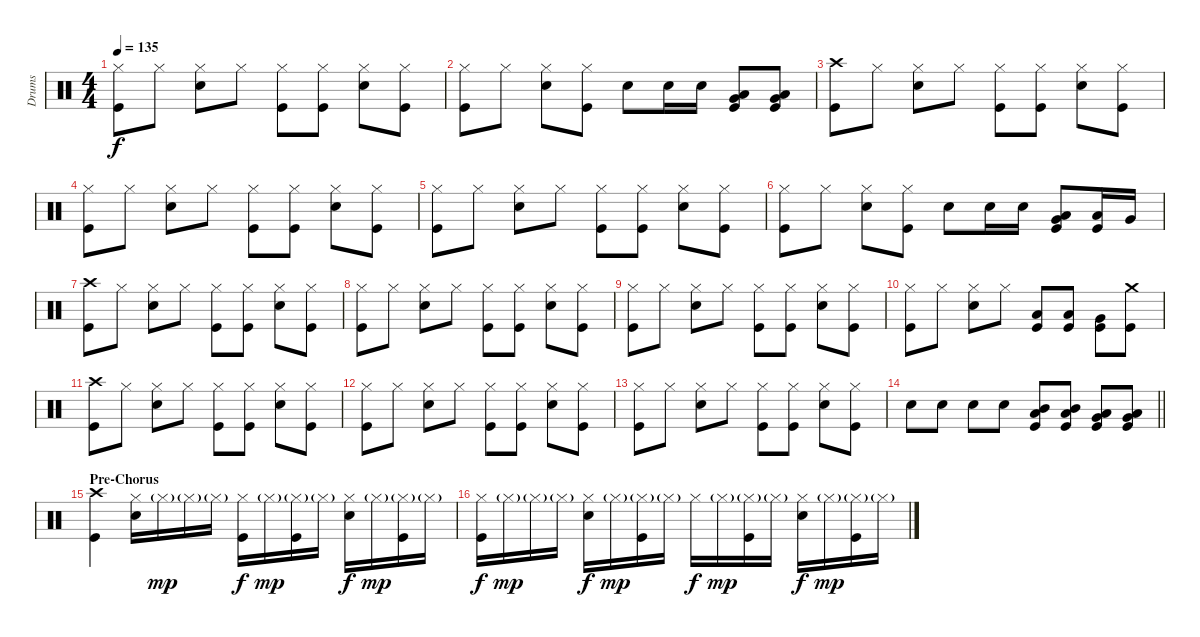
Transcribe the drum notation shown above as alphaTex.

\track ("Drums" "Drums") {instrument percussion}
\staff {score}
\articulation defaults
\ts (4 4)
\tempo 135
\clef neutral
\ks c
("Hi-Hat (closed)" "Kick (hit)").8{dy f} "Hi-Hat (closed)".8 ("Hi-Hat (closed)" "Snare (hit) 2").8 "Hi-Hat (closed)".8 ("Hi-Hat (closed)" "Kick (hit)").8 ("Hi-Hat (closed)" "Kick (hit)").8 ("Hi-Hat (closed)" "Snare (hit) 2").8 ("Hi-Hat (closed)" "Kick (hit)").8 |
("Hi-Hat (closed)" "Kick (hit)").8 "Hi-Hat (closed)".8 ("Hi-Hat (closed)" "Snare (hit) 2").8 ("Hi-Hat (closed)" "Kick (hit)").8 "Snare (hit) 2".8 "Snare (hit) 2".16 "Snare (hit) 2".16 ("Low Tom (hit)" "Very Low Tom (hit)" "Kick (hit)").8 ("Low Tom (hit)" "Very Low Tom (hit)" "Kick (hit)").8 |
("Crash high (hit)" "Kick (hit)").8 "Hi-Hat (closed)".8 ("Hi-Hat (closed)" "Snare (hit) 2").8 "Hi-Hat (closed)".8 ("Hi-Hat (closed)" "Kick (hit)").8 ("Hi-Hat (closed)" "Kick (hit)").8 ("Hi-Hat (closed)" "Snare (hit) 2").8 ("Hi-Hat (closed)" "Kick (hit)").8 |
("Hi-Hat (closed)" "Kick (hit)").8 "Hi-Hat (closed)".8 ("Hi-Hat (closed)" "Snare (hit) 2").8 "Hi-Hat (closed)".8 ("Hi-Hat (closed)" "Kick (hit)").8 ("Hi-Hat (closed)" "Kick (hit)").8 ("Hi-Hat (closed)" "Snare (hit) 2").8 ("Hi-Hat (closed)" "Kick (hit)").8 |
("Hi-Hat (closed)" "Kick (hit)").8 "Hi-Hat (closed)".8 ("Hi-Hat (closed)" "Snare (hit) 2").8 "Hi-Hat (closed)".8 ("Hi-Hat (closed)" "Kick (hit)").8 ("Hi-Hat (closed)" "Kick (hit)").8 ("Hi-Hat (closed)" "Snare (hit) 2").8 ("Hi-Hat (closed)" "Kick (hit)").8 |
("Hi-Hat (closed)" "Kick (hit)").8 "Hi-Hat (closed)".8 ("Hi-Hat (closed)" "Snare (hit) 2").8 ("Hi-Hat (closed)" "Kick (hit)").8 "Snare (hit) 2".8 "Snare (hit) 2".16 "Snare (hit) 2".16 ("Low Tom (hit)" "Very Low Tom (hit)" "Kick (hit)").8 ("Low Tom (hit)" "Kick (hit)").16 "Very Low Tom (hit)".16 |
("Crash high (hit)" "Kick (hit)").8 "Hi-Hat (closed)".8 ("Hi-Hat (closed)" "Snare (hit) 2").8 "Hi-Hat (closed)".8 ("Hi-Hat (closed)" "Kick (hit)").8 ("Hi-Hat (closed)" "Kick (hit)").8 ("Hi-Hat (closed)" "Snare (hit) 2").8 ("Hi-Hat (closed)" "Kick (hit)").8 |
("Hi-Hat (closed)" "Kick (hit)").8 "Hi-Hat (closed)".8 ("Hi-Hat (closed)" "Snare (hit) 2").8 "Hi-Hat (closed)".8 ("Hi-Hat (closed)" "Kick (hit)").8 ("Hi-Hat (closed)" "Kick (hit)").8 ("Hi-Hat (closed)" "Snare (hit) 2").8 ("Hi-Hat (closed)" "Kick (hit)").8 |
("Hi-Hat (closed)" "Kick (hit)").8 "Hi-Hat (closed)".8 ("Hi-Hat (closed)" "Snare (hit) 2").8 "Hi-Hat (closed)".8 ("Hi-Hat (closed)" "Kick (hit)").8 ("Hi-Hat (closed)" "Kick (hit)").8 ("Hi-Hat (closed)" "Snare (hit) 2").8 ("Hi-Hat (closed)" "Kick (hit)").8 |
("Hi-Hat (closed)" "Kick (hit)").8 "Hi-Hat (closed)".8 ("Hi-Hat (closed)" "Snare (hit) 2").8 "Hi-Hat (closed)".8 ("Low Tom (hit)" "Kick (hit)").8 ("Low Tom (hit)" "Kick (hit)").8 ("Very Low Tom (hit)" "Kick (hit)").8 ("Crash medium (hit)" "Kick (hit)").8 |
("Crash high (hit)" "Kick (hit)").8 "Hi-Hat (closed)".8 ("Hi-Hat (closed)" "Snare (hit) 2").8 "Hi-Hat (closed)".8 ("Hi-Hat (closed)" "Kick (hit)").8 ("Hi-Hat (closed)" "Kick (hit)").8 ("Hi-Hat (closed)" "Snare (hit) 2").8 ("Hi-Hat (closed)" "Kick (hit)").8 |
("Hi-Hat (closed)" "Kick (hit)").8 "Hi-Hat (closed)".8 ("Hi-Hat (closed)" "Snare (hit) 2").8 "Hi-Hat (closed)".8 ("Hi-Hat (closed)" "Kick (hit)").8 ("Hi-Hat (closed)" "Kick (hit)").8 ("Hi-Hat (closed)" "Snare (hit) 2").8 ("Hi-Hat (closed)" "Kick (hit)").8 |
("Hi-Hat (closed)" "Kick (hit)").8 "Hi-Hat (closed)".8 ("Hi-Hat (closed)" "Snare (hit) 2").8 "Hi-Hat (closed)".8 ("Hi-Hat (closed)" "Kick (hit)").8 ("Hi-Hat (closed)" "Kick (hit)").8 ("Hi-Hat (closed)" "Snare (hit) 2").8 ("Hi-Hat (closed)" "Kick (hit)").8 |
\barLineRight lightlight "Snare (hit) 2".8 "Snare (hit) 2".8 "Snare (hit) 2".8 "Snare (hit) 2".8
("Mid Tom (hit)" "Low Tom (hit)" "Kick (hit)").8 ("Mid Tom (hit)" "Low Tom (hit)" "Kick (hit)").8 ("Low Tom (hit)" "Very Low Tom (hit)" "Kick (hit)").8 ("Low Tom (hit)" "Very Low Tom (hit)" "Kick (hit)").8 |
\section ("" "Pre-Chorus")
("Crash high (hit)" "Kick (hit)").4 ("Hi-Hat (closed)" "Snare (hit) 2").16 "Hi-Hat (closed)"{g}.16{dy mp} "Hi-Hat (closed)"{g}.16 "Hi-Hat (closed)"{g}.16 ("Hi-Hat (closed)" "Kick (hit)").16{dy f} "Hi-Hat (closed)"{g}.16{dy mp} ("Hi-Hat (closed)"{g} "Kick (hit)").16 "Hi-Hat (closed)"{g}.16 ("Hi-Hat (closed)" "Snare (hit) 2").16{dy f} "Hi-Hat (closed)"{g}.16{dy mp} ("Hi-Hat (closed)"{g} "Kick (hit)").16 "Hi-Hat (closed)"{g}.16 |
("Hi-Hat (closed)" "Kick (hit)").16{dy f} "Hi-Hat (closed)"{g}.16{dy mp} "Hi-Hat (closed)"{g}.16 "Hi-Hat (closed)"{g}.16 ("Hi-Hat (closed)" "Snare (hit) 2").16{dy f} "Hi-Hat (closed)"{g}.16{dy mp} ("Hi-Hat (closed)"{g} "Kick (hit)").16 "Hi-Hat (closed)"{g}.16 "Hi-Hat (closed)".16{dy f} "Hi-Hat (closed)"{g}.16{dy mp} ("Hi-Hat (closed)"{g} "Kick (hit)").16 "Hi-Hat (closed)"{g}.16 ("Hi-Hat (closed)" "Snare (hit) 2").16{dy f} "Hi-Hat (closed)"{g}.16{dy mp} ("Hi-Hat (closed)"{g} "Kick (hit)").16 "Hi-Hat (closed)"{g}.16
